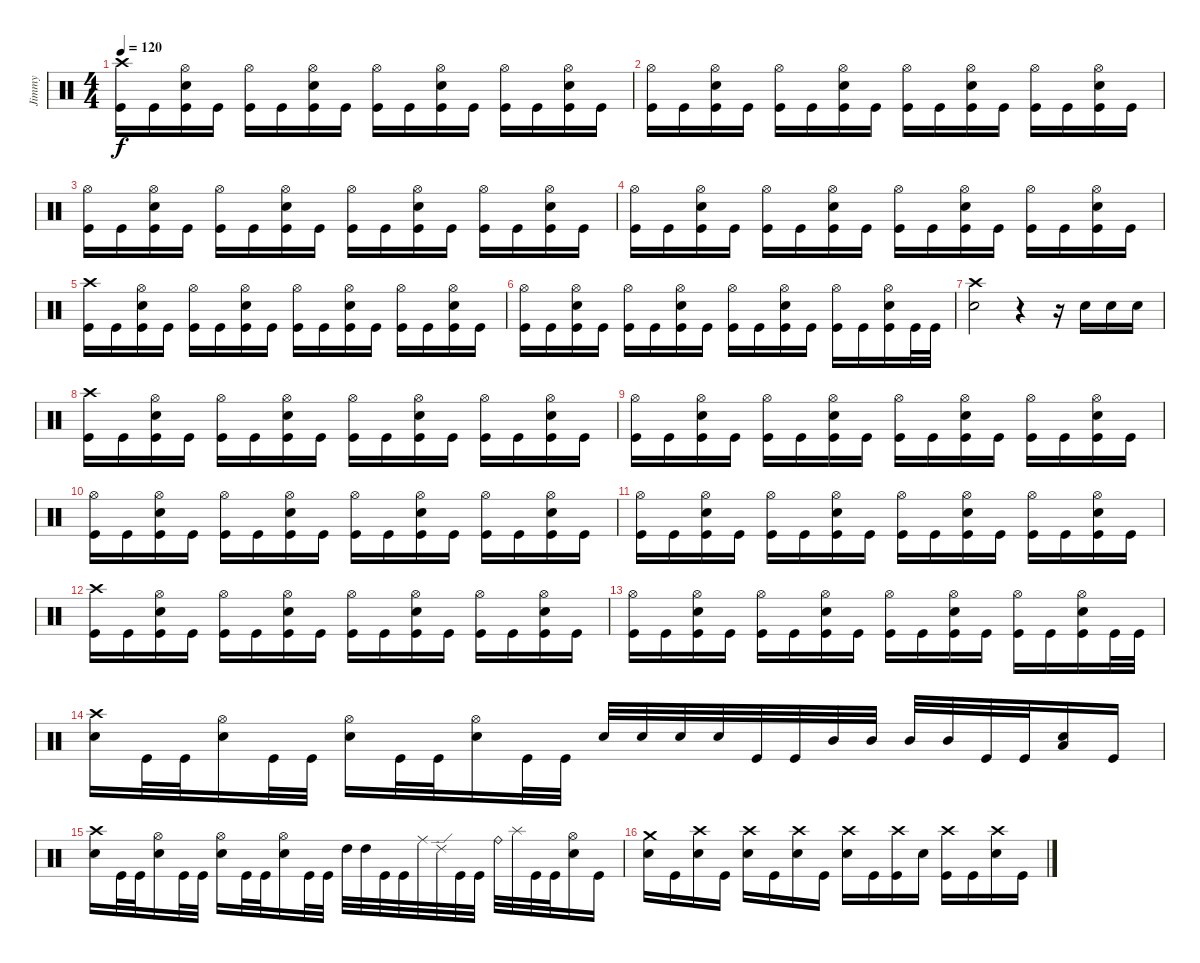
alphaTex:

\track ("Jimmy" "Jimmy") {instrument percussion}
\staff {score}
\articulation defaults
\ts (4 4)
\tempo 120
\clef neutral
\ks c
("Kick (hit)" "Crash high (hit)").16{dy f} "Kick (hit)".16 ("Kick (hit)" "Hi-Hat (open)" "Snare (hit) 2").16 "Kick (hit)".16 ("Kick (hit)" "Hi-Hat (open)").16 "Kick (hit)".16 ("Kick (hit)" "Hi-Hat (open)" "Snare (hit) 2").16 "Kick (hit)".16 ("Kick (hit)" "Hi-Hat (open)").16 "Kick (hit)".16 ("Kick (hit)" "Hi-Hat (open)" "Snare (hit) 2").16 "Kick (hit)".16 ("Kick (hit)" "Hi-Hat (open)").16 "Kick (hit)".16 ("Kick (hit)" "Hi-Hat (open)" "Snare (hit) 2").16 "Kick (hit)".16 |
("Kick (hit)" "Hi-Hat (open)").16 "Kick (hit)".16 ("Kick (hit)" "Hi-Hat (open)" "Snare (hit) 2").16 "Kick (hit)".16 ("Kick (hit)" "Hi-Hat (open)").16 "Kick (hit)".16 ("Kick (hit)" "Hi-Hat (open)" "Snare (hit) 2").16 "Kick (hit)".16 ("Kick (hit)" "Hi-Hat (open)").16 "Kick (hit)".16 ("Kick (hit)" "Hi-Hat (open)" "Snare (hit) 2").16 "Kick (hit)".16 ("Kick (hit)" "Hi-Hat (open)").16 "Kick (hit)".16 ("Kick (hit)" "Hi-Hat (open)" "Snare (hit) 2").16 "Kick (hit)".16 |
("Kick (hit)" "Hi-Hat (open)").16 "Kick (hit)".16 ("Kick (hit)" "Hi-Hat (open)" "Snare (hit) 2").16 "Kick (hit)".16 ("Kick (hit)" "Hi-Hat (open)").16 "Kick (hit)".16 ("Kick (hit)" "Hi-Hat (open)" "Snare (hit) 2").16 "Kick (hit)".16 ("Kick (hit)" "Hi-Hat (open)").16 "Kick (hit)".16 ("Kick (hit)" "Hi-Hat (open)" "Snare (hit) 2").16 "Kick (hit)".16 ("Kick (hit)" "Hi-Hat (open)").16 "Kick (hit)".16 ("Kick (hit)" "Hi-Hat (open)" "Snare (hit) 2").16 "Kick (hit)".16 |
("Kick (hit)" "Hi-Hat (open)").16 "Kick (hit)".16 ("Kick (hit)" "Hi-Hat (open)" "Snare (hit) 2").16 "Kick (hit)".16 ("Kick (hit)" "Hi-Hat (open)").16 "Kick (hit)".16 ("Kick (hit)" "Hi-Hat (open)" "Snare (hit) 2").16 "Kick (hit)".16 ("Kick (hit)" "Hi-Hat (open)").16 "Kick (hit)".16 ("Kick (hit)" "Hi-Hat (open)" "Snare (hit) 2").16 "Kick (hit)".16 ("Kick (hit)" "Hi-Hat (open)").16 "Kick (hit)".16 ("Kick (hit)" "Hi-Hat (open)" "Snare (hit) 2").16 "Kick (hit)".16 |
("Kick (hit)" "Crash high (hit)").16 "Kick (hit)".16 ("Kick (hit)" "Hi-Hat (open)" "Snare (hit) 2").16 "Kick (hit)".16 ("Kick (hit)" "Hi-Hat (open)").16 "Kick (hit)".16 ("Kick (hit)" "Hi-Hat (open)" "Snare (hit) 2").16 "Kick (hit)".16 ("Kick (hit)" "Hi-Hat (open)").16 "Kick (hit)".16 ("Kick (hit)" "Hi-Hat (open)" "Snare (hit) 2").16 "Kick (hit)".16 ("Kick (hit)" "Hi-Hat (open)").16 "Kick (hit)".16 ("Kick (hit)" "Hi-Hat (open)" "Snare (hit) 2").16 "Kick (hit)".16 |
("Kick (hit)" "Hi-Hat (open)").16 "Kick (hit)".16 ("Kick (hit)" "Hi-Hat (open)" "Snare (hit) 2").16 "Kick (hit)".16 ("Kick (hit)" "Hi-Hat (open)").16 "Kick (hit)".16 ("Kick (hit)" "Hi-Hat (open)" "Snare (hit) 2").16 "Kick (hit)".16 ("Kick (hit)" "Hi-Hat (open)").16 "Kick (hit)".16 ("Kick (hit)" "Hi-Hat (open)" "Snare (hit) 2").16 "Kick (hit)".16 ("Kick (hit)" "Hi-Hat (open)").16 "Kick (hit)".16 ("Kick (hit)" "Hi-Hat (open)" "Snare (hit) 2").16 "Kick (hit)".32 "Kick (hit)".32 |
("Snare (hit) 2" "Crash high (hit)").2 r.4 r.16 "Snare (hit) 2".16 "Snare (hit) 2".16 "Snare (hit) 2".16 |
("Kick (hit)" "Crash high (hit)").16 "Kick (hit)".16 ("Kick (hit)" "Hi-Hat (open)" "Snare (hit) 2").16 "Kick (hit)".16 ("Kick (hit)" "Hi-Hat (open)").16 "Kick (hit)".16 ("Kick (hit)" "Hi-Hat (open)" "Snare (hit) 2").16 "Kick (hit)".16 ("Kick (hit)" "Hi-Hat (open)").16 "Kick (hit)".16 ("Kick (hit)" "Hi-Hat (open)" "Snare (hit) 2").16 "Kick (hit)".16 ("Kick (hit)" "Hi-Hat (open)").16 "Kick (hit)".16 ("Kick (hit)" "Hi-Hat (open)" "Snare (hit) 2").16 "Kick (hit)".16 |
("Kick (hit)" "Hi-Hat (open)").16 "Kick (hit)".16 ("Kick (hit)" "Hi-Hat (open)" "Snare (hit) 2").16 "Kick (hit)".16 ("Kick (hit)" "Hi-Hat (open)").16 "Kick (hit)".16 ("Kick (hit)" "Hi-Hat (open)" "Snare (hit) 2").16 "Kick (hit)".16 ("Kick (hit)" "Hi-Hat (open)").16 "Kick (hit)".16 ("Kick (hit)" "Hi-Hat (open)" "Snare (hit) 2").16 "Kick (hit)".16 ("Kick (hit)" "Hi-Hat (open)").16 "Kick (hit)".16 ("Kick (hit)" "Hi-Hat (open)" "Snare (hit) 2").16 "Kick (hit)".16 |
("Kick (hit)" "Hi-Hat (open)").16 "Kick (hit)".16 ("Kick (hit)" "Hi-Hat (open)" "Snare (hit) 2").16 "Kick (hit)".16 ("Kick (hit)" "Hi-Hat (open)").16 "Kick (hit)".16 ("Kick (hit)" "Hi-Hat (open)" "Snare (hit) 2").16 "Kick (hit)".16 ("Kick (hit)" "Hi-Hat (open)").16 "Kick (hit)".16 ("Kick (hit)" "Hi-Hat (open)" "Snare (hit) 2").16 "Kick (hit)".16 ("Kick (hit)" "Hi-Hat (open)").16 "Kick (hit)".16 ("Kick (hit)" "Hi-Hat (open)" "Snare (hit) 2").16 "Kick (hit)".16 |
("Kick (hit)" "Hi-Hat (open)").16 "Kick (hit)".16 ("Kick (hit)" "Hi-Hat (open)" "Snare (hit) 2").16 "Kick (hit)".16 ("Kick (hit)" "Hi-Hat (open)").16 "Kick (hit)".16 ("Kick (hit)" "Hi-Hat (open)" "Snare (hit) 2").16 "Kick (hit)".16 ("Kick (hit)" "Hi-Hat (open)").16 "Kick (hit)".16 ("Kick (hit)" "Hi-Hat (open)" "Snare (hit) 2").16 "Kick (hit)".16 ("Kick (hit)" "Hi-Hat (open)").16 "Kick (hit)".16 ("Kick (hit)" "Hi-Hat (open)" "Snare (hit) 2").16 "Kick (hit)".16 |
("Kick (hit)" "Crash high (hit)").16 "Kick (hit)".16 ("Kick (hit)" "Hi-Hat (open)" "Snare (hit) 2").16 "Kick (hit)".16 ("Kick (hit)" "Hi-Hat (open)").16 "Kick (hit)".16 ("Kick (hit)" "Hi-Hat (open)" "Snare (hit) 2").16 "Kick (hit)".16 ("Kick (hit)" "Hi-Hat (open)").16 "Kick (hit)".16 ("Kick (hit)" "Hi-Hat (open)" "Snare (hit) 2").16 "Kick (hit)".16 ("Kick (hit)" "Hi-Hat (open)").16 "Kick (hit)".16 ("Kick (hit)" "Hi-Hat (open)" "Snare (hit) 2").16 "Kick (hit)".16 |
("Kick (hit)" "Hi-Hat (open)").16 "Kick (hit)".16 ("Kick (hit)" "Hi-Hat (open)" "Snare (hit) 2").16 "Kick (hit)".16 ("Kick (hit)" "Hi-Hat (open)").16 "Kick (hit)".16 ("Kick (hit)" "Hi-Hat (open)" "Snare (hit) 2").16 "Kick (hit)".16 ("Kick (hit)" "Hi-Hat (open)").16 "Kick (hit)".16 ("Kick (hit)" "Hi-Hat (open)" "Snare (hit) 2").16 "Kick (hit)".16 ("Kick (hit)" "Hi-Hat (open)").16 "Kick (hit)".16 ("Kick (hit)" "Hi-Hat (open)" "Snare (hit) 2").16 "Kick (hit)".32 "Kick (hit)".32 |
("Snare (hit) 2" "Crash high (hit)").16 "Kick (hit)".32 "Kick (hit)".32 ("Snare (hit) 2" "Hi-Hat (open)").16 "Kick (hit)".32 "Kick (hit)".32 ("Snare (hit) 2" "Hi-Hat (open)").16 "Kick (hit)".32 "Kick (hit)".32 ("Snare (hit) 2" "Hi-Hat (open)").16 "Kick (hit)".32 "Kick (hit)".32 "Snare (hit) 2".32 "Snare (hit) 2".32 "Snare (hit) 2".32 "Snare (hit) 2".32 "Kick (hit)".32 "Kick (hit)".32 "Mid Tom (hit)".32 "Mid Tom (hit)".32 "Mid Tom (hit)".32 "Mid Tom (hit)".32 "Kick (hit)".32 "Kick (hit)".32 ("Snare (hit) 2" "Low Tom (hit)").16 "Kick (hit)".16 |
("Snare (hit) 2" "Crash high (hit)").16 "Kick (hit)".32 "Kick (hit)".32 ("Snare (hit) 2" "Hi-Hat (open)").16 "Kick (hit)".32 "Kick (hit)".32 ("Snare (hit) 2" "Hi-Hat (open)").16 "Kick (hit)".32 "Kick (hit)".32 ("Snare (hit) 2" "Hi-Hat (open)").16 "Kick (hit)".32 "Kick (hit)".32 "High Tom (hit)".32 "High Tom (hit)".32 "Kick (hit)".32 "Kick (hit)".32 "Ride (middle)".32 "Ride (edge) 2".32 "Kick (hit)".32 "Kick (hit)".32 "Ride (bell)".32 "Splash (hit)".32 "Kick (hit)".32 "Kick (hit)".32 ("Snare (hit) 2" "Hi-Hat (open)").16 "Kick (hit)".16 |
("Snare (hit) 2" "Crash medium (hit)").16 "Kick (hit)".16 ("Snare (hit) 2" "Crash high (hit)").16 "Kick (hit)".16 ("Snare (hit) 2" "Crash high (hit)").16 "Kick (hit)".16 ("Snare (hit) 2" "Crash high (hit)").16 "Kick (hit)".16 ("Snare (hit) 2" "Crash high (hit)").16 "Kick (hit)".16 ("Kick (hit)" "Crash high (hit)").16 "Snare (hit) 2".16 ("Kick (hit)" "Crash high (hit)").16 "Kick (hit)".16 ("Snare (hit) 2" "Crash high (hit)").16 "Kick (hit)".16
